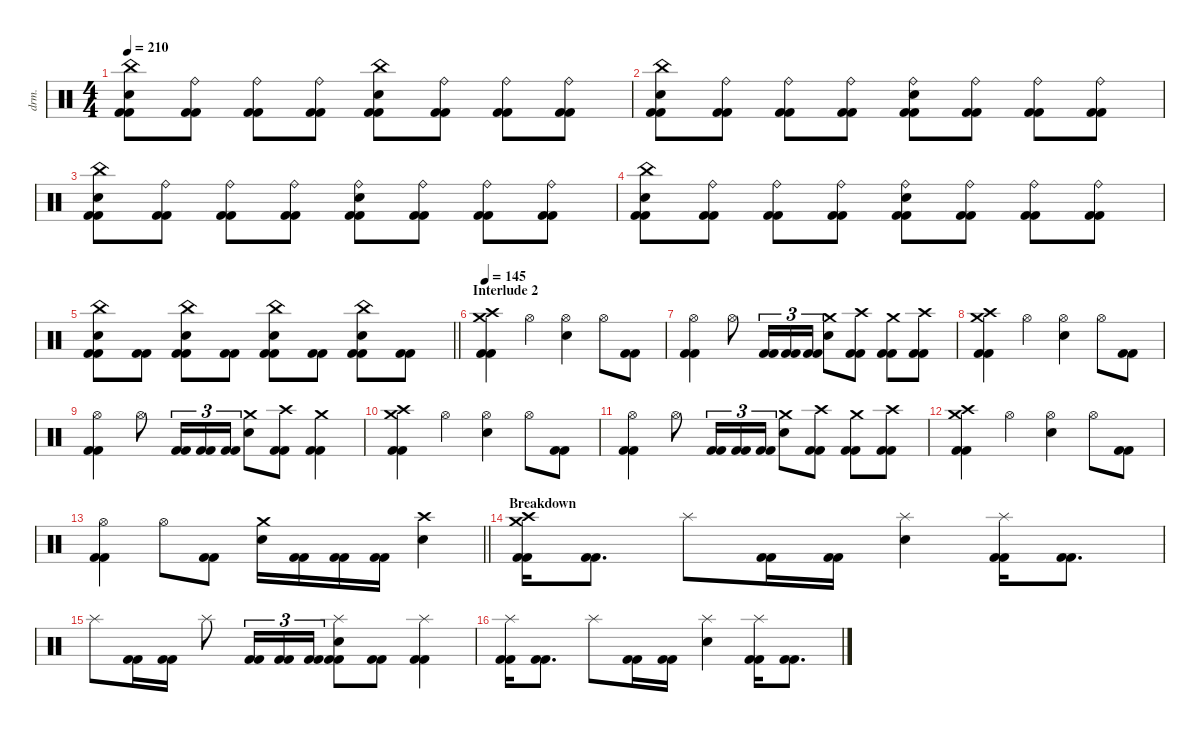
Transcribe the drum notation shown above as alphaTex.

\defaultSystemsLayout 4
\hideDynamics
\bracketExtendMode nobrackets
\otherSystemsTrackNameOrientation horizontal
\track ("Chris Adler" "drm.") {instrument percussion}
\staff {score}
\articulation defaults
\ts (4 4)
\tempo 210
\clef neutral
\ks c
("China (hit)" "Snare (hit) 2" "Kick (hit) 2" "Kick (hit) 2").8{dy f} ("Ride (bell)" "Kick (hit) 2" "Kick (hit) 2").8 ("Ride (bell)" "Kick (hit) 2" "Kick (hit) 2").8 ("Ride (bell)" "Kick (hit) 2" "Kick (hit) 2").8 ("China (hit)" "Snare (hit) 2" "Kick (hit) 2" "Kick (hit) 2").8 ("Ride (bell)" "Kick (hit) 2" "Kick (hit) 2").8 ("Ride (bell)" "Kick (hit) 2" "Kick (hit) 2").8 ("Ride (bell)" "Kick (hit) 2" "Kick (hit) 2").8 |
("China (hit)" "Snare (hit) 2" "Kick (hit) 2" "Kick (hit) 2").8 ("Ride (bell)" "Kick (hit) 2" "Kick (hit) 2").8 ("Ride (bell)" "Kick (hit) 2" "Kick (hit) 2").8 ("Ride (bell)" "Kick (hit) 2" "Kick (hit) 2").8 ("Ride (bell)" "Snare (hit) 2" "Kick (hit) 2" "Kick (hit) 2").8 ("Ride (bell)" "Kick (hit) 2" "Kick (hit) 2").8 ("Ride (bell)" "Kick (hit) 2" "Kick (hit) 2").8 ("Ride (bell)" "Kick (hit) 2" "Kick (hit) 2").8 |
("China (hit)" "Snare (hit) 2" "Kick (hit) 2" "Kick (hit) 2").8 ("Ride (bell)" "Kick (hit) 2" "Kick (hit) 2").8 ("Ride (bell)" "Kick (hit) 2" "Kick (hit) 2").8 ("Ride (bell)" "Kick (hit) 2" "Kick (hit) 2").8 ("Ride (bell)" "Snare (hit) 2" "Kick (hit) 2" "Kick (hit) 2").8 ("Ride (bell)" "Kick (hit) 2" "Kick (hit) 2").8 ("Ride (bell)" "Kick (hit) 2" "Kick (hit) 2").8 ("Ride (bell)" "Kick (hit) 2" "Kick (hit) 2").8 |
("China (hit)" "Snare (hit) 2" "Kick (hit) 2" "Kick (hit) 2").8 ("Ride (bell)" "Kick (hit) 2" "Kick (hit) 2").8 ("Ride (bell)" "Kick (hit) 2" "Kick (hit) 2").8 ("Ride (bell)" "Kick (hit) 2" "Kick (hit) 2").8 ("Ride (bell)" "Snare (hit) 2" "Kick (hit) 2" "Kick (hit) 2").8 ("Ride (bell)" "Kick (hit) 2" "Kick (hit) 2").8 ("Ride (bell)" "Kick (hit) 2" "Kick (hit) 2").8 ("Ride (bell)" "Kick (hit) 2" "Kick (hit) 2").8 |
\barLineRight lightlight
("China (hit)" "Snare (hit) 2" "Kick (hit) 2" "Kick (hit) 2").8 ("Kick (hit) 2" "Kick (hit) 2").8 ("China (hit)" "Snare (hit) 2" "Kick (hit) 2" "Kick (hit) 2").8 ("Kick (hit) 2" "Kick (hit) 2").8 ("China (hit)" "Snare (hit) 2" "Kick (hit) 2" "Kick (hit) 2").8 ("Kick (hit) 2" "Kick (hit) 2").8 ("China (hit)" "Snare (hit) 2" "Kick (hit) 2" "Kick (hit) 2").8 ("Kick (hit) 2" "Kick (hit) 2").8 |
\section ("" "Interlude 2")
\tempo 145
("Crash medium (hit)" "Crash high (hit)" "Kick (hit) 2" "Kick (hit) 2").4 "Hi-Hat (open)".4 ("Hi-Hat (open)" "Snare (hit) 2").4 "Hi-Hat (open)".8 ("Kick (hit) 2" "Kick (hit) 2").8 |
("Hi-Hat (open)" "Kick (hit) 2" "Kick (hit) 2").4 "Hi-Hat (open)".8 ("Kick (hit) 2" "Kick (hit) 2").16{tu (3 2)} ("Kick (hit) 2" "Kick (hit) 2").16{tu (3 2)} ("Kick (hit) 2" "Kick (hit) 2").16{tu (3 2)} ("Crash medium (hit)" "Snare (hit) 2").8 ("Crash high (hit)" "Kick (hit) 2" "Kick (hit) 2").8 ("Crash medium (hit)" "Kick (hit) 2" "Kick (hit) 2").8 ("Crash high (hit)" "Kick (hit) 2" "Kick (hit) 2").8 |
("Crash medium (hit)" "Crash high (hit)" "Kick (hit) 2" "Kick (hit) 2").4 "Hi-Hat (open)".4 ("Hi-Hat (open)" "Snare (hit) 2").4 "Hi-Hat (open)".8 ("Kick (hit) 2" "Kick (hit) 2").8 |
("Hi-Hat (open)" "Kick (hit) 2" "Kick (hit) 2").4 "Hi-Hat (open)".8 ("Kick (hit) 2" "Kick (hit) 2").16{tu (3 2)} ("Kick (hit) 2" "Kick (hit) 2").16{tu (3 2)} ("Kick (hit) 2" "Kick (hit) 2").16{tu (3 2)} ("Crash medium (hit)" "Snare (hit) 2").8 ("Crash high (hit)" "Kick (hit) 2" "Kick (hit) 2").8 ("Crash medium (hit)" "Kick (hit) 2" "Kick (hit) 2").4 |
("Crash medium (hit)" "Crash high (hit)" "Kick (hit) 2" "Kick (hit) 2").4 "Hi-Hat (open)".4 ("Hi-Hat (open)" "Snare (hit) 2").4 "Hi-Hat (open)".8 ("Kick (hit) 2" "Kick (hit) 2").8 |
("Hi-Hat (open)" "Kick (hit) 2" "Kick (hit) 2").4 "Hi-Hat (open)".8 ("Kick (hit) 2" "Kick (hit) 2").16{tu (3 2)} ("Kick (hit) 2" "Kick (hit) 2").16{tu (3 2)} ("Kick (hit) 2" "Kick (hit) 2").16{tu (3 2)} ("Crash medium (hit)" "Snare (hit) 2").8 ("Crash high (hit)" "Kick (hit) 2" "Kick (hit) 2").8 ("Crash medium (hit)" "Kick (hit) 2" "Kick (hit) 2").8 ("Crash high (hit)" "Kick (hit) 2" "Kick (hit) 2").8 |
("Crash medium (hit)" "Crash high (hit)" "Kick (hit) 2" "Kick (hit) 2").4 "Hi-Hat (open)".4 ("Hi-Hat (open)" "Snare (hit) 2").4 "Hi-Hat (open)".8 ("Kick (hit) 2" "Kick (hit) 2").8 |
\barLineRight lightlight
("Hi-Hat (open)" "Kick (hit) 2" "Kick (hit) 2").4 "Hi-Hat (open)".8 ("Kick (hit) 2" "Kick (hit) 2").8 ("Crash medium (hit)" "Snare (hit) 2").16 ("Kick (hit) 2" "Kick (hit) 2").16 ("Kick (hit) 2" "Kick (hit) 2").16 ("Kick (hit) 2" "Kick (hit) 2").16 ("Crash high (hit)" "Snare (hit) 2").4 |
\section ("" "Breakdown")
("Crash medium (hit)" "Crash high (hit)" "Kick (hit) 2" "Kick (hit) 2").16 ("Kick (hit) 2" "Kick (hit) 2").8{d} "Splash (hit)".8 ("Kick (hit) 2" "Kick (hit) 2").16 ("Kick (hit) 2" "Kick (hit) 2").16 ("Splash (hit)" "Snare (hit) 2").4 ("Splash (hit)" "Kick (hit) 2" "Kick (hit) 2").16 ("Kick (hit) 2" "Kick (hit) 2").8{d} |
"Splash (hit)".8 ("Kick (hit) 2" "Kick (hit) 2").16 ("Kick (hit) 2" "Kick (hit) 2").16 "Splash (hit)".8 ("Kick (hit) 2" "Kick (hit) 2").16{tu (3 2)} ("Kick (hit) 2" "Kick (hit) 2").16{tu (3 2)} ("Kick (hit) 2" "Kick (hit) 2").16{tu (3 2)} ("Splash (hit)" "Snare (hit) 2" "Kick (hit) 2" "Kick (hit) 2").8 ("Kick (hit) 2" "Kick (hit) 2").8 ("Splash (hit)" "Kick (hit) 2" "Kick (hit) 2").4 |
("Splash (hit)" "Kick (hit) 2" "Kick (hit) 2").16 ("Kick (hit) 2" "Kick (hit) 2").8{d} "Splash (hit)".8 ("Kick (hit) 2" "Kick (hit) 2").16 ("Kick (hit) 2" "Kick (hit) 2").16 ("Splash (hit)" "Snare (hit) 2").4 ("Splash (hit)" "Kick (hit) 2" "Kick (hit) 2").16 ("Kick (hit) 2" "Kick (hit) 2").8{d}
